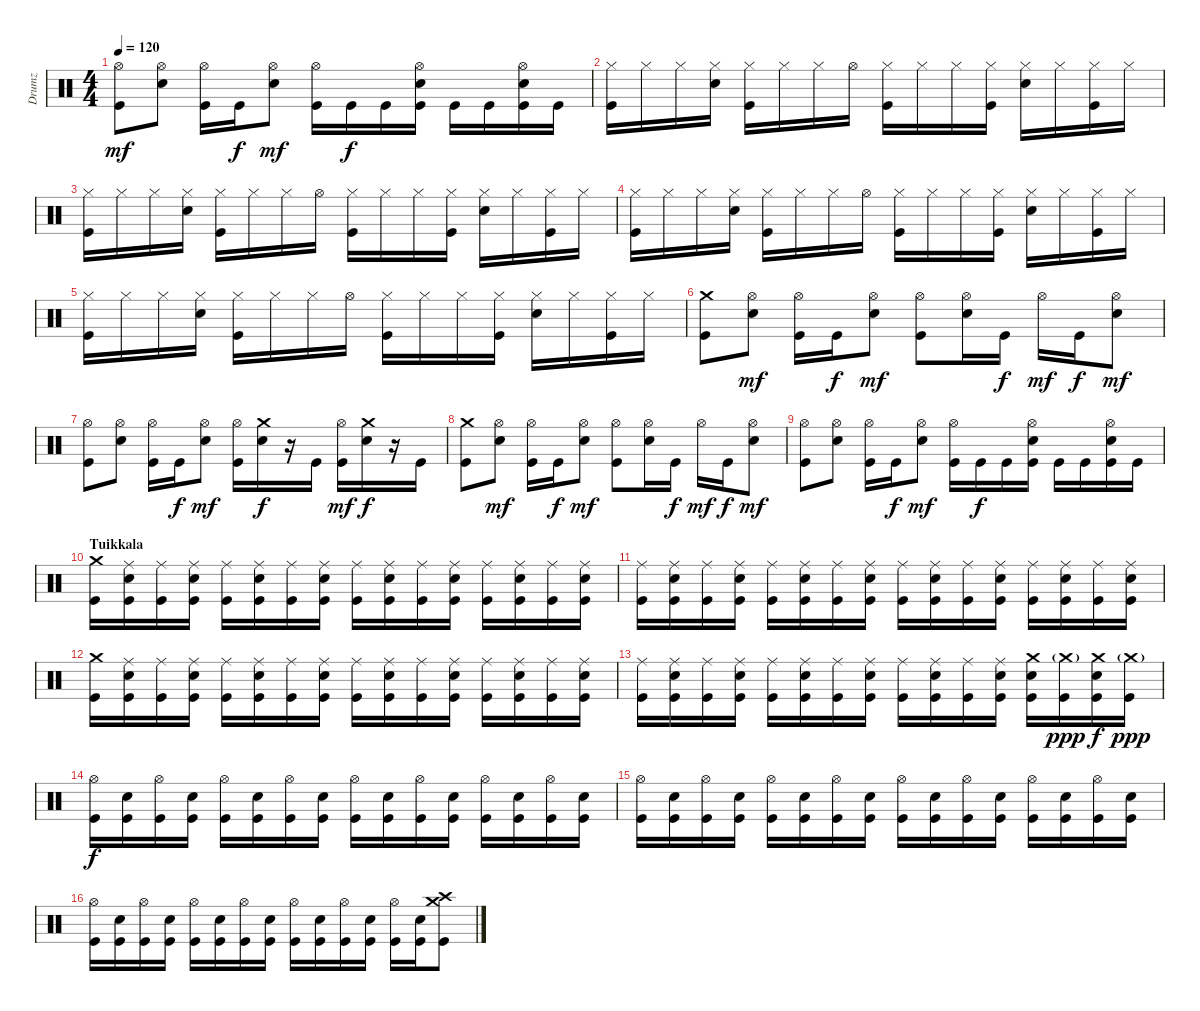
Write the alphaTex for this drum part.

\track ("Drumz" "Drumz") {instrument percussion}
\staff {score}
\articulation defaults
\ts (4 4)
\tempo 120
\clef neutral
\ks c
("Hi-Hat (open)" "Kick (hit)").8{dy mf} ("Hi-Hat (open)" "Electric Snare (hit)").8 ("Hi-Hat (open)" "Kick (hit)").16 "Kick (hit)".16{dy f} ("Hi-Hat (open)" "Electric Snare (hit)").8{dy mf} ("Hi-Hat (open)" "Kick (hit)").16 "Kick (hit)".16{dy f} "Kick (hit)".16 ("Hi-Hat (open)" "Electric Snare (hit)" "Kick (hit)").16 "Kick (hit)".16 "Kick (hit)".16 ("Hi-Hat (open)" "Electric Snare (hit)" "Kick (hit)").16 "Kick (hit)".16 |
("Hi-Hat (closed)" "Kick (hit)").16 "Hi-Hat (closed)".16 "Hi-Hat (closed)".16 ("Hi-Hat (closed)" "Electric Snare (hit)").16 ("Hi-Hat (closed)" "Kick (hit)").16 "Hi-Hat (closed)".16 "Hi-Hat (closed)".16 "Hi-Hat (open)".16 ("Hi-Hat (closed)" "Kick (hit)").16 "Hi-Hat (closed)".16 "Hi-Hat (closed)".16 ("Hi-Hat (closed)" "Kick (hit)").16 ("Hi-Hat (closed)" "Electric Snare (hit)").16 "Hi-Hat (closed)".16 ("Hi-Hat (closed)" "Kick (hit)").16 "Hi-Hat (closed)".16 |
("Hi-Hat (closed)" "Kick (hit)").16 "Hi-Hat (closed)".16 "Hi-Hat (closed)".16 ("Hi-Hat (closed)" "Electric Snare (hit)").16 ("Hi-Hat (closed)" "Kick (hit)").16 "Hi-Hat (closed)".16 "Hi-Hat (closed)".16 "Hi-Hat (open)".16 ("Hi-Hat (closed)" "Kick (hit)").16 "Hi-Hat (closed)".16 "Hi-Hat (closed)".16 ("Hi-Hat (closed)" "Kick (hit)").16 ("Hi-Hat (closed)" "Electric Snare (hit)").16 "Hi-Hat (closed)".16 ("Hi-Hat (closed)" "Kick (hit)").16 "Hi-Hat (closed)".16 |
("Hi-Hat (closed)" "Kick (hit)").16 "Hi-Hat (closed)".16 "Hi-Hat (closed)".16 ("Hi-Hat (closed)" "Electric Snare (hit)").16 ("Hi-Hat (closed)" "Kick (hit)").16 "Hi-Hat (closed)".16 "Hi-Hat (closed)".16 "Hi-Hat (open)".16 ("Hi-Hat (closed)" "Kick (hit)").16 "Hi-Hat (closed)".16 "Hi-Hat (closed)".16 ("Hi-Hat (closed)" "Kick (hit)").16 ("Hi-Hat (closed)" "Electric Snare (hit)").16 "Hi-Hat (closed)".16 ("Hi-Hat (closed)" "Kick (hit)").16 "Hi-Hat (closed)".16 |
("Hi-Hat (closed)" "Kick (hit)").16 "Hi-Hat (closed)".16 "Hi-Hat (closed)".16 ("Hi-Hat (closed)" "Electric Snare (hit)").16 ("Hi-Hat (closed)" "Kick (hit)").16 "Hi-Hat (closed)".16 "Hi-Hat (closed)".16 "Hi-Hat (open)".16 ("Hi-Hat (closed)" "Kick (hit)").16 "Hi-Hat (closed)".16 "Hi-Hat (closed)".16 ("Hi-Hat (closed)" "Kick (hit)").16 ("Hi-Hat (closed)" "Electric Snare (hit)").16 "Hi-Hat (closed)".16 ("Hi-Hat (closed)" "Kick (hit)").16 "Hi-Hat (closed)".16 |
("Crash medium (hit)" "Kick (hit)").8 ("Hi-Hat (open)" "Electric Snare (hit)").8{dy mf} ("Hi-Hat (open)" "Kick (hit)").16 "Kick (hit)".16{dy f} ("Hi-Hat (open)" "Electric Snare (hit)").8{dy mf} ("Hi-Hat (open)" "Kick (hit)").8 ("Hi-Hat (open)" "Electric Snare (hit)").16 "Kick (hit)".16{dy f} "Hi-Hat (open)".16{dy mf} "Kick (hit)".16{dy f} ("Hi-Hat (open)" "Electric Snare (hit)").8{dy mf} |
("Hi-Hat (open)" "Kick (hit)").8 ("Hi-Hat (open)" "Electric Snare (hit)").8 ("Hi-Hat (open)" "Kick (hit)").16 "Kick (hit)".16{dy f} ("Hi-Hat (open)" "Electric Snare (hit)").8{dy mf} ("Hi-Hat (open)" "Kick (hit)").16 ("Crash medium (hit)" "Electric Snare (hit)").16{dy f} r.16 "Kick (hit)".16 ("Hi-Hat (open)" "Kick (hit)").16{dy mf} ("Crash medium (hit)" "Electric Snare (hit)").16{dy f} r.16 "Kick (hit)".16 |
("Crash medium (hit)" "Kick (hit)").8 ("Hi-Hat (open)" "Electric Snare (hit)").8{dy mf} ("Hi-Hat (open)" "Kick (hit)").16 "Kick (hit)".16{dy f} ("Hi-Hat (open)" "Electric Snare (hit)").8{dy mf} ("Hi-Hat (open)" "Kick (hit)").8 ("Hi-Hat (open)" "Electric Snare (hit)").16 "Kick (hit)".16{dy f} "Hi-Hat (open)".16{dy mf} "Kick (hit)".16{dy f} ("Hi-Hat (open)" "Electric Snare (hit)").8{dy mf} |
("Hi-Hat (open)" "Kick (hit)").8 ("Hi-Hat (open)" "Electric Snare (hit)").8 ("Hi-Hat (open)" "Kick (hit)").16 "Kick (hit)".16{dy f} ("Hi-Hat (open)" "Electric Snare (hit)").8{dy mf} ("Hi-Hat (open)" "Kick (hit)").16 "Kick (hit)".16{dy f} "Kick (hit)".16 ("Hi-Hat (open)" "Electric Snare (hit)" "Kick (hit)").16 "Kick (hit)".16 "Kick (hit)".16 ("Hi-Hat (open)" "Electric Snare (hit)" "Kick (hit)").16 "Kick (hit)".16 |
\section ("" "Tuikkala")
("Crash medium (hit)" "Kick (hit)").16 ("Ride (middle)" "Electric Snare (hit)" "Kick (hit)").16 ("Ride (middle)" "Kick (hit)").16 ("Ride (middle)" "Electric Snare (hit)" "Kick (hit)").16 ("Ride (middle)" "Kick (hit)").16 ("Ride (middle)" "Electric Snare (hit)" "Kick (hit)").16 ("Ride (middle)" "Kick (hit)").16 ("Ride (middle)" "Electric Snare (hit)" "Kick (hit)").16 ("Ride (middle)" "Kick (hit)").16 ("Ride (middle)" "Electric Snare (hit)" "Kick (hit)").16 ("Ride (middle)" "Kick (hit)").16 ("Ride (middle)" "Electric Snare (hit)" "Kick (hit)").16 ("Ride (middle)" "Kick (hit)").16 ("Ride (middle)" "Electric Snare (hit)" "Kick (hit)").16 ("Ride (middle)" "Kick (hit)").16 ("Ride (middle)" "Electric Snare (hit)" "Kick (hit)").16 |
("Ride (middle)" "Kick (hit)").16 ("Ride (middle)" "Electric Snare (hit)" "Kick (hit)").16 ("Ride (middle)" "Kick (hit)").16 ("Ride (middle)" "Electric Snare (hit)" "Kick (hit)").16 ("Ride (middle)" "Kick (hit)").16 ("Ride (middle)" "Electric Snare (hit)" "Kick (hit)").16 ("Ride (middle)" "Kick (hit)").16 ("Ride (middle)" "Electric Snare (hit)" "Kick (hit)").16 ("Ride (middle)" "Kick (hit)").16 ("Ride (middle)" "Electric Snare (hit)" "Kick (hit)").16 ("Ride (middle)" "Kick (hit)").16 ("Ride (middle)" "Electric Snare (hit)" "Kick (hit)").16 ("Ride (middle)" "Kick (hit)").16 ("Ride (middle)" "Electric Snare (hit)" "Kick (hit)").16 ("Ride (middle)" "Kick (hit)").16 ("Ride (middle)" "Electric Snare (hit)" "Kick (hit)").16 |
("Crash medium (hit)" "Kick (hit)").16 ("Ride (middle)" "Electric Snare (hit)" "Kick (hit)").16 ("Ride (middle)" "Kick (hit)").16 ("Ride (middle)" "Electric Snare (hit)" "Kick (hit)").16 ("Ride (middle)" "Kick (hit)").16 ("Ride (middle)" "Electric Snare (hit)" "Kick (hit)").16 ("Ride (middle)" "Kick (hit)").16 ("Ride (middle)" "Electric Snare (hit)" "Kick (hit)").16 ("Ride (middle)" "Kick (hit)").16 ("Ride (middle)" "Electric Snare (hit)" "Kick (hit)").16 ("Ride (middle)" "Kick (hit)").16 ("Ride (middle)" "Electric Snare (hit)" "Kick (hit)").16 ("Ride (middle)" "Kick (hit)").16 ("Ride (middle)" "Electric Snare (hit)" "Kick (hit)").16 ("Ride (middle)" "Kick (hit)").16 ("Ride (middle)" "Electric Snare (hit)" "Kick (hit)").16 |
("Ride (middle)" "Kick (hit)").16 ("Ride (middle)" "Electric Snare (hit)" "Kick (hit)").16 ("Ride (middle)" "Kick (hit)").16 ("Ride (middle)" "Electric Snare (hit)" "Kick (hit)").16 ("Ride (middle)" "Kick (hit)").16 ("Ride (middle)" "Electric Snare (hit)" "Kick (hit)").16 ("Ride (middle)" "Kick (hit)").16 ("Ride (middle)" "Electric Snare (hit)" "Kick (hit)").16 ("Ride (middle)" "Kick (hit)").16 ("Ride (middle)" "Electric Snare (hit)" "Kick (hit)").16 ("Ride (middle)" "Kick (hit)").16 ("Ride (middle)" "Electric Snare (hit)" "Kick (hit)").16 ("Crash medium (hit)" "Electric Snare (hit)" "Kick (hit)").16 ("Crash medium (hit)"{g} "Kick (hit)").16{dy ppp} ("Crash medium (hit)" "Electric Snare (hit)" "Kick (hit)").16{dy f} ("Crash medium (hit)"{g} "Kick (hit)").16{dy ppp} |
("Hi-Hat (open)" "Kick (hit)").16{dy f} ("Electric Snare (hit)" "Kick (hit)").16 ("Hi-Hat (open)" "Kick (hit)").16 ("Electric Snare (hit)" "Kick (hit)").16 ("Hi-Hat (open)" "Kick (hit)").16 ("Electric Snare (hit)" "Kick (hit)").16 ("Hi-Hat (open)" "Kick (hit)").16 ("Electric Snare (hit)" "Kick (hit)").16 ("Hi-Hat (open)" "Kick (hit)").16 ("Electric Snare (hit)" "Kick (hit)").16 ("Hi-Hat (open)" "Kick (hit)").16 ("Electric Snare (hit)" "Kick (hit)").16 ("Hi-Hat (open)" "Kick (hit)").16 ("Electric Snare (hit)" "Kick (hit)").16 ("Hi-Hat (open)" "Kick (hit)").16 ("Electric Snare (hit)" "Kick (hit)").16 |
("Hi-Hat (open)" "Kick (hit)").16 ("Electric Snare (hit)" "Kick (hit)").16 ("Hi-Hat (open)" "Kick (hit)").16 ("Electric Snare (hit)" "Kick (hit)").16 ("Hi-Hat (open)" "Kick (hit)").16 ("Electric Snare (hit)" "Kick (hit)").16 ("Hi-Hat (open)" "Kick (hit)").16 ("Electric Snare (hit)" "Kick (hit)").16 ("Hi-Hat (open)" "Kick (hit)").16 ("Electric Snare (hit)" "Kick (hit)").16 ("Hi-Hat (open)" "Kick (hit)").16 ("Electric Snare (hit)" "Kick (hit)").16 ("Hi-Hat (open)" "Kick (hit)").16 ("Electric Snare (hit)" "Kick (hit)").16 ("Hi-Hat (open)" "Kick (hit)").16 ("Electric Snare (hit)" "Kick (hit)").16 |
("Hi-Hat (open)" "Kick (hit)").16 ("Electric Snare (hit)" "Kick (hit)").16 ("Hi-Hat (open)" "Kick (hit)").16 ("Electric Snare (hit)" "Kick (hit)").16 ("Hi-Hat (open)" "Kick (hit)").16 ("Electric Snare (hit)" "Kick (hit)").16 ("Hi-Hat (open)" "Kick (hit)").16 ("Electric Snare (hit)" "Kick (hit)").16 ("Hi-Hat (open)" "Kick (hit)").16 ("Electric Snare (hit)" "Kick (hit)").16 ("Hi-Hat (open)" "Kick (hit)").16 ("Electric Snare (hit)" "Kick (hit)").16 ("Hi-Hat (open)" "Kick (hit)").16 ("Electric Snare (hit)" "Kick (hit)").16 ("Crash medium (hit)" "Crash high (hit)" "Kick (hit)").8
